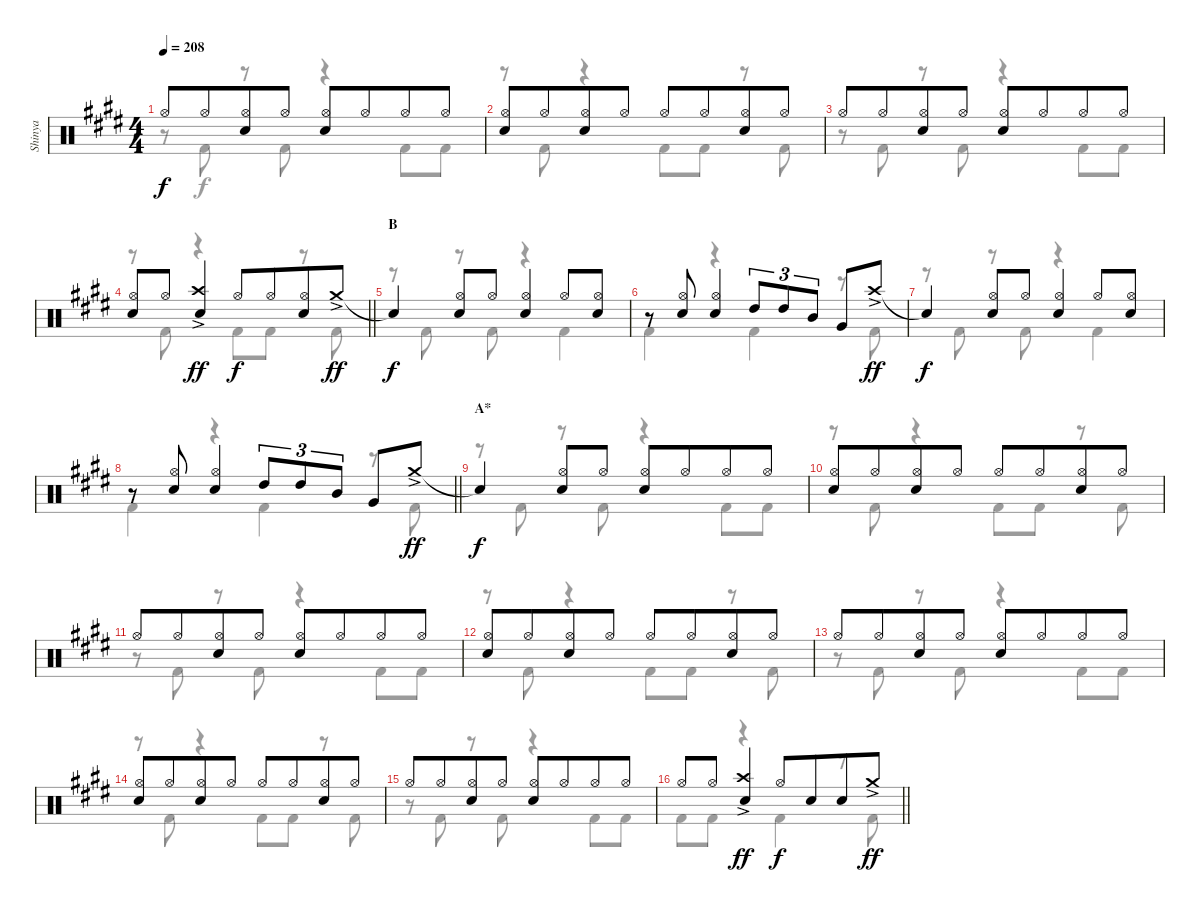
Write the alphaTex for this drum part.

\track ("Shinya" "Shinya") {instrument percussion}
\staff {score}
\articulation defaults
\voice
\ts (4 4)
\tempo 208
\clef neutral
\ks c#minor "Hi-Hat (open)".8{dy f} "Hi-Hat (open)".8{beam merge}
("Hi-Hat (open)" "Snare (hit) 2").8 "Hi-Hat (open)".8 ("Hi-Hat (open)" "Snare (hit) 2").8 "Hi-Hat (open)".8{beam merge} "Hi-Hat (open)".8 "Hi-Hat (open)".8 |
("Hi-Hat (open)" "Snare (hit) 2").8 "Hi-Hat (open)".8{beam merge} ("Hi-Hat (open)" "Snare (hit) 2").8 "Hi-Hat (open)".8 "Hi-Hat (open)".8 "Hi-Hat (open)".8{beam merge} ("Hi-Hat (open)" "Snare (hit) 2").8 "Hi-Hat (open)".8 |
"Hi-Hat (open)".8 "Hi-Hat (open)".8{beam merge} ("Hi-Hat (open)" "Snare (hit) 2").8 "Hi-Hat (open)".8 ("Hi-Hat (open)" "Snare (hit) 2").8 "Hi-Hat (open)".8{beam merge} "Hi-Hat (open)".8 "Hi-Hat (open)".8 |
\barLineRight lightlight
("Hi-Hat (open)" "Snare (hit) 2").8 "Hi-Hat (open)".8 ("Crash high (hit)"{ac} "Snare (hit) 2").4{dy ff} "Hi-Hat (open)".8{dy f} "Hi-Hat (open)".8{beam merge} ("Hi-Hat (open)" "Snare (hit) 2").8 "Crash medium (hit)"{ac}.8{dy ff} |
\section ("" "B")
"Snare (hit)"{t}.4{dy f} ("Hi-Hat (open)" "Snare (hit) 2").8 "Hi-Hat (open)".8 ("Hi-Hat (open)" "Snare (hit) 2").4 "Hi-Hat (open)".8 ("Hi-Hat (open)" "Snare (hit) 2").8 |
r.8 ("Hi-Hat (open)" "Snare (hit) 2").8 ("Hi-Hat (open)" "Snare (hit) 2").4 "High Tom (hit)".8{tu (3 2)} "High Tom (hit)".8{tu (3 2)} "Mid Tom (hit)".8{tu (3 2)} "Very Low Tom (hit)".8 "Crash high (hit)"{ac}.8{dy ff} |
"Snare (hit)"{t}.4{dy f} ("Hi-Hat (open)" "Snare (hit) 2").8 "Hi-Hat (open)".8 ("Hi-Hat (open)" "Snare (hit) 2").4 "Hi-Hat (open)".8 ("Hi-Hat (open)" "Snare (hit) 2").8 |
\barLineRight lightlight
r.8 ("Hi-Hat (open)" "Snare (hit) 2").8 ("Hi-Hat (open)" "Snare (hit) 2").4 "High Tom (hit)".8{tu (3 2)} "High Tom (hit)".8{tu (3 2)} "Mid Tom (hit)".8{tu (3 2)} "Very Low Tom (hit)".8 "Crash medium (hit)"{ac}.8{dy ff} |
\section ("" "A*")
"Snare (hit)"{t}.4{dy f} ("Hi-Hat (open)" "Snare (hit) 2").8 "Hi-Hat (open)".8 ("Hi-Hat (open)" "Snare (hit) 2").8 "Hi-Hat (open)".8{beam merge} "Hi-Hat (open)".8 "Hi-Hat (open)".8 |
("Hi-Hat (open)" "Snare (hit) 2").8 "Hi-Hat (open)".8{beam merge} ("Hi-Hat (open)" "Snare (hit) 2").8 "Hi-Hat (open)".8 "Hi-Hat (open)".8 "Hi-Hat (open)".8{beam merge} ("Hi-Hat (open)" "Snare (hit) 2").8 "Hi-Hat (open)".8 |
"Hi-Hat (open)".8 "Hi-Hat (open)".8{beam merge} ("Hi-Hat (open)" "Snare (hit) 2").8 "Hi-Hat (open)".8 ("Hi-Hat (open)" "Snare (hit) 2").8 "Hi-Hat (open)".8{beam merge} "Hi-Hat (open)".8 "Hi-Hat (open)".8 |
("Hi-Hat (open)" "Snare (hit) 2").8 "Hi-Hat (open)".8{beam merge} ("Hi-Hat (open)" "Snare (hit) 2").8 "Hi-Hat (open)".8 "Hi-Hat (open)".8 "Hi-Hat (open)".8{beam merge} ("Hi-Hat (open)" "Snare (hit) 2").8 "Hi-Hat (open)".8 |
"Hi-Hat (open)".8 "Hi-Hat (open)".8{beam merge} ("Hi-Hat (open)" "Snare (hit) 2").8 "Hi-Hat (open)".8 ("Hi-Hat (open)" "Snare (hit) 2").8 "Hi-Hat (open)".8{beam merge} "Hi-Hat (open)".8 "Hi-Hat (open)".8 |
("Hi-Hat (open)" "Snare (hit) 2").8 "Hi-Hat (open)".8{beam merge} ("Hi-Hat (open)" "Snare (hit) 2").8 "Hi-Hat (open)".8 "Hi-Hat (open)".8 "Hi-Hat (open)".8{beam merge} ("Hi-Hat (open)" "Snare (hit) 2").8 "Hi-Hat (open)".8 |
"Hi-Hat (open)".8 "Hi-Hat (open)".8{beam merge} ("Hi-Hat (open)" "Snare (hit) 2").8 "Hi-Hat (open)".8 ("Hi-Hat (open)" "Snare (hit) 2").8 "Hi-Hat (open)".8{beam merge} "Hi-Hat (open)".8 "Hi-Hat (open)".8 |
\barLineRight lightlight "Hi-Hat (open)".8 "Hi-Hat (open)".8
("Crash high (hit)"{ac} "Snare (hit) 2").4{dy ff} "Hi-Hat (open)".8{dy f} "Snare (hit) 2".8{beam merge} "Snare (hit) 2".8 "Crash medium (hit)"{ac}.8{dy ff}
\voice
\clef neutral
\ottava regular
\simile none
\ks c#minor
r.8{dy f} "Kick (hit) 2".8 r.8 "Kick (hit) 2".8 r.4 "Kick (hit) 2".8 "Kick (hit) 2".8 |
r.8 "Kick (hit) 2".8 r.4 "Kick (hit) 2".8 "Kick (hit) 2".8 r.8 "Kick (hit) 2".8 |
r.8 "Kick (hit) 2".8 r.8 "Kick (hit) 2".8 r.4 "Kick (hit) 2".8 "Kick (hit) 2".8 |
\barLineRight lightlight
r.8 "Kick (hit) 2".8 r.4 "Kick (hit) 2".8 "Kick (hit) 2".8 r.8 "Kick (hit) 2".8 |
r.8 "Kick (hit) 2".8 r.8 "Kick (hit) 2".8 r.4 "Kick (hit) 2".4 |
"Kick (hit) 2".4 r.4 "Kick (hit) 2".4 r.8 "Kick (hit) 2".8 |
r.8 "Kick (hit) 2".8 r.8 "Kick (hit) 2".8 r.4 "Kick (hit) 2".4 |
\barLineRight lightlight "Kick (hit) 2".4
r.4 "Kick (hit) 2".4 r.8 "Kick (hit) 2".8 |
r.8 "Kick (hit) 2".8 r.8 "Kick (hit) 2".8 r.4 "Kick (hit) 2".8 "Kick (hit) 2".8 |
r.8 "Kick (hit) 2".8 r.4 "Kick (hit) 2".8 "Kick (hit) 2".8 r.8 "Kick (hit) 2".8 |
r.8 "Kick (hit) 2".8 r.8 "Kick (hit) 2".8 r.4 "Kick (hit) 2".8 "Kick (hit) 2".8 |
r.8 "Kick (hit) 2".8 r.4 "Kick (hit) 2".8 "Kick (hit) 2".8 r.8 "Kick (hit) 2".8 |
r.8 "Kick (hit) 2".8 r.8 "Kick (hit) 2".8 r.4 "Kick (hit) 2".8 "Kick (hit) 2".8 |
r.8 "Kick (hit) 2".8 r.4 "Kick (hit) 2".8 "Kick (hit) 2".8 r.8 "Kick (hit) 2".8 |
r.8 "Kick (hit) 2".8 r.8 "Kick (hit) 2".8 r.4 "Kick (hit) 2".8 "Kick (hit) 2".8 |
\barLineRight lightlight "Kick (hit) 2".8 "Kick (hit) 2".8
r.4 "Kick (hit) 2".4 r.8 "Kick (hit) 2".8
